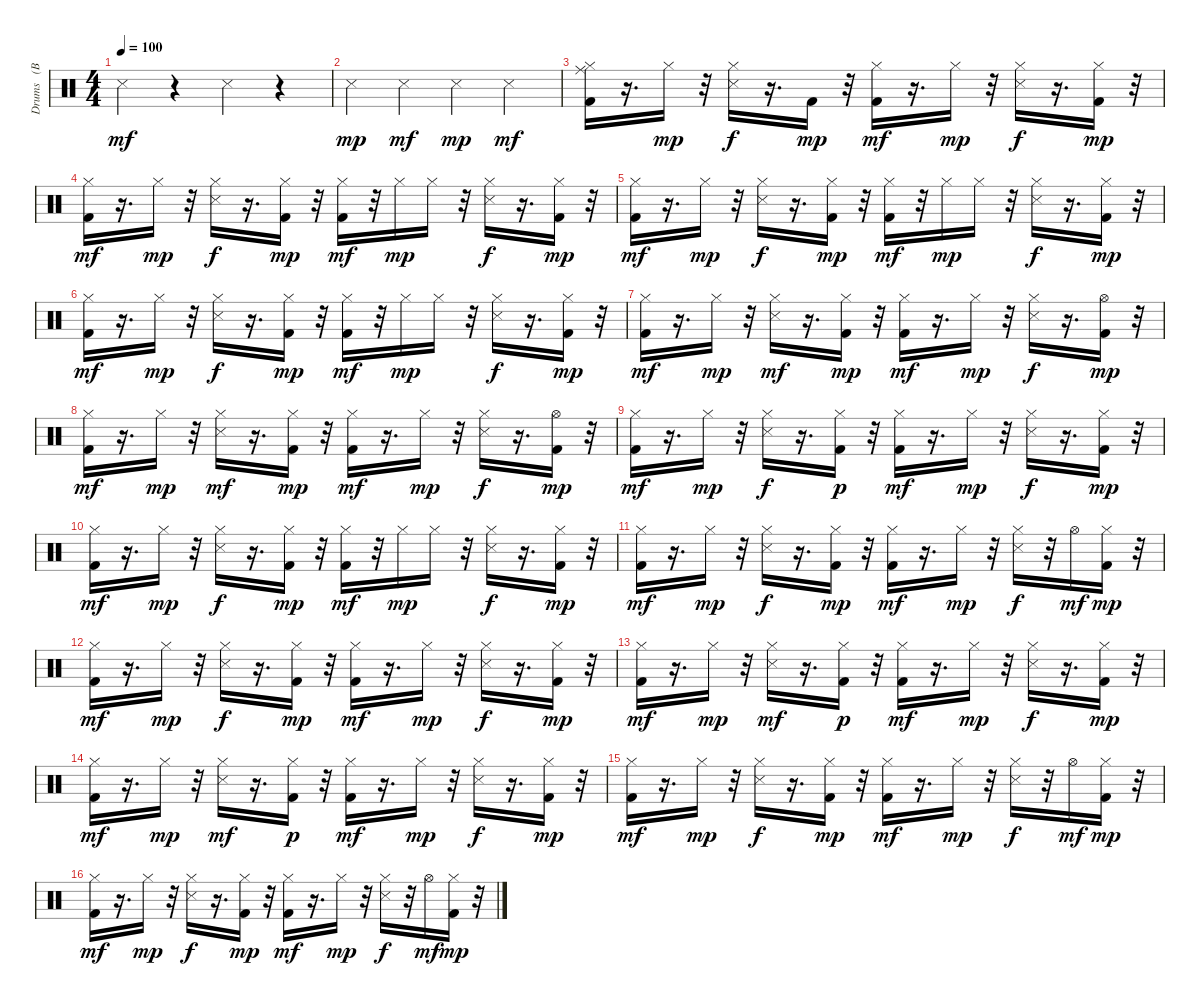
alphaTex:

\track ("Drums   (BB)" "Drums   (B") {instrument percussion}
\staff {score}
\articulation defaults
\ts (4 4)
\tempo 100
\clef neutral
\ks c "Snare (side stick) 3".4{dy mf}
r.4 "Snare (side stick) 3".4 r.4 |
"Snare (side stick) 3".4{dy mp} "Snare (side stick) 3".4{dy mf} "Snare (side stick) 3".4{dy mp} "Snare (side stick) 3".4{dy mf} |
("Kick (hit) 2" "Hi-Hat (closed)" "Ride (middle)").16 r.16{d} "Hi-Hat (closed)".16{dy mp} r.32 ("Hi-Hat (closed)" "Snare (side stick) 3").16{dy f} r.16{d} "Kick (hit) 2".16{dy mp} r.32 ("Kick (hit) 2" "Hi-Hat (closed)").16{dy mf} r.16{d} "Hi-Hat (closed)".16{dy mp} r.32 ("Hi-Hat (closed)" "Snare (side stick) 3").16{dy f} r.16{d} ("Kick (hit) 2" "Hi-Hat (closed)").16{dy mp} r.32 |
("Kick (hit) 2" "Hi-Hat (closed)").16{dy mf} r.16{d} "Hi-Hat (closed)".16{dy mp} r.32 ("Hi-Hat (closed)" "Snare (side stick) 3").16{dy f} r.16{d} ("Kick (hit) 2" "Hi-Hat (closed)").16{dy mp} r.32 ("Kick (hit) 2" "Hi-Hat (closed)").16{dy mf} r.32 "Hi-Hat (closed)".16{dy mp} "Hi-Hat (closed)".16 r.32 ("Hi-Hat (closed)" "Snare (side stick) 3").16{dy f} r.16{d} ("Kick (hit) 2" "Hi-Hat (closed)").16{dy mp} r.32 |
("Kick (hit) 2" "Hi-Hat (closed)").16{dy mf} r.16{d} "Hi-Hat (closed)".16{dy mp} r.32 ("Hi-Hat (closed)" "Snare (side stick) 3").16{dy f} r.16{d} ("Kick (hit) 2" "Hi-Hat (closed)").16{dy mp} r.32 ("Kick (hit) 2" "Hi-Hat (closed)").16{dy mf} r.32 "Hi-Hat (closed)".16{dy mp} "Hi-Hat (closed)".16 r.32 ("Hi-Hat (closed)" "Snare (side stick) 3").16{dy f} r.16{d} ("Kick (hit) 2" "Hi-Hat (closed)").16{dy mp} r.32 |
("Kick (hit) 2" "Hi-Hat (closed)").16{dy mf} r.16{d} "Hi-Hat (closed)".16{dy mp} r.32 ("Hi-Hat (closed)" "Snare (side stick) 3").16{dy f} r.16{d} ("Kick (hit) 2" "Hi-Hat (closed)").16{dy mp} r.32 ("Kick (hit) 2" "Hi-Hat (closed)").16{dy mf} r.32 "Hi-Hat (closed)".16{dy mp} "Hi-Hat (closed)".16 r.32 ("Hi-Hat (closed)" "Snare (side stick) 3").16{dy f} r.16{d} ("Kick (hit) 2" "Hi-Hat (closed)").16{dy mp} r.32 |
("Kick (hit) 2" "Hi-Hat (closed)").16{dy mf} r.16{d} "Hi-Hat (closed)".16{dy mp} r.32 ("Hi-Hat (closed)" "Snare (side stick) 3").16{dy mf} r.16{d} ("Kick (hit) 2" "Hi-Hat (closed)").16{dy mp} r.32 ("Kick (hit) 2" "Hi-Hat (closed)").16{dy mf} r.16{d} "Hi-Hat (closed)".16{dy mp} r.32 ("Hi-Hat (closed)" "Snare (side stick) 3").16{dy f} r.16{d} ("Kick (hit) 2" "Hi-Hat (open)").16{dy mp} r.32 |
("Kick (hit) 2" "Hi-Hat (closed)").16{dy mf} r.16{d} "Hi-Hat (closed)".16{dy mp} r.32 ("Hi-Hat (closed)" "Snare (side stick) 3").16{dy mf} r.16{d} ("Kick (hit) 2" "Hi-Hat (closed)").16{dy mp} r.32 ("Kick (hit) 2" "Hi-Hat (closed)").16{dy mf} r.16{d} "Hi-Hat (closed)".16{dy mp} r.32 ("Hi-Hat (closed)" "Snare (side stick) 3").16{dy f} r.16{d} ("Kick (hit) 2" "Hi-Hat (open)").16{dy mp} r.32 |
("Kick (hit) 2" "Hi-Hat (closed)").16{dy mf} r.16{d} "Hi-Hat (closed)".16{dy mp} r.32 ("Hi-Hat (closed)" "Snare (side stick) 3").16{dy f} r.16{d} ("Kick (hit) 2" "Hi-Hat (closed)").16{dy p} r.32 ("Kick (hit) 2" "Hi-Hat (closed)").16{dy mf} r.16{d} "Hi-Hat (closed)".16{dy mp} r.32 ("Hi-Hat (closed)" "Snare (side stick) 3").16{dy f} r.16{d} ("Kick (hit) 2" "Hi-Hat (closed)").16{dy mp} r.32 |
("Kick (hit) 2" "Hi-Hat (closed)").16{dy mf} r.16{d} "Hi-Hat (closed)".16{dy mp} r.32 ("Hi-Hat (closed)" "Snare (side stick) 3").16{dy f} r.16{d} ("Kick (hit) 2" "Hi-Hat (closed)").16{dy mp} r.32 ("Kick (hit) 2" "Hi-Hat (closed)").16{dy mf} r.32 "Hi-Hat (closed)".16{dy mp} "Hi-Hat (closed)".16 r.32 ("Hi-Hat (closed)" "Snare (side stick) 3").16{dy f} r.16{d} ("Kick (hit) 2" "Hi-Hat (closed)").16{dy mp} r.32 |
("Kick (hit) 2" "Hi-Hat (closed)").16{dy mf} r.16{d} "Hi-Hat (closed)".16{dy mp} r.32 ("Hi-Hat (closed)" "Snare (side stick) 3").16{dy f} r.16{d} ("Kick (hit) 2" "Hi-Hat (closed)").16{dy mp} r.32 ("Kick (hit) 2" "Hi-Hat (closed)").16{dy mf} r.16{d} "Hi-Hat (closed)".16{dy mp} r.32 ("Hi-Hat (closed)" "Snare (side stick) 3").16{dy f} r.32 "Hi-Hat (open)".16{dy mf} ("Kick (hit) 2" "Hi-Hat (closed)").16{dy mp} r.32 |
("Kick (hit) 2" "Hi-Hat (closed)").16{dy mf} r.16{d} "Hi-Hat (closed)".16{dy mp} r.32 ("Hi-Hat (closed)" "Snare (side stick) 3").16{dy f} r.16{d} ("Kick (hit) 2" "Hi-Hat (closed)").16{dy mp} r.32 ("Kick (hit) 2" "Hi-Hat (closed)").16{dy mf} r.16{d} "Hi-Hat (closed)".16{dy mp} r.32 ("Hi-Hat (closed)" "Snare (side stick) 3").16{dy f} r.16{d} ("Kick (hit) 2" "Hi-Hat (closed)").16{dy mp} r.32 |
("Kick (hit) 2" "Hi-Hat (closed)").16{dy mf} r.16{d} "Hi-Hat (closed)".16{dy mp} r.32 ("Hi-Hat (closed)" "Snare (side stick) 3").16{dy mf} r.16{d} ("Kick (hit) 2" "Hi-Hat (closed)").16{dy p} r.32 ("Kick (hit) 2" "Hi-Hat (closed)").16{dy mf} r.16{d} "Hi-Hat (closed)".16{dy mp} r.32 ("Hi-Hat (closed)" "Snare (side stick) 3").16{dy f} r.16{d} ("Kick (hit) 2" "Hi-Hat (closed)").16{dy mp} r.32 |
("Kick (hit) 2" "Hi-Hat (closed)").16{dy mf} r.16{d} "Hi-Hat (closed)".16{dy mp} r.32 ("Hi-Hat (closed)" "Snare (side stick) 3").16{dy mf} r.16{d} ("Kick (hit) 2" "Hi-Hat (closed)").16{dy p} r.32 ("Kick (hit) 2" "Hi-Hat (closed)").16{dy mf} r.16{d} "Hi-Hat (closed)".16{dy mp} r.32 ("Hi-Hat (closed)" "Snare (side stick) 3").16{dy f} r.16{d} ("Kick (hit) 2" "Hi-Hat (closed)").16{dy mp} r.32 |
("Kick (hit) 2" "Hi-Hat (closed)").16{dy mf} r.16{d} "Hi-Hat (closed)".16{dy mp} r.32 ("Hi-Hat (closed)" "Snare (side stick) 3").16{dy f} r.16{d} ("Kick (hit) 2" "Hi-Hat (closed)").16{dy mp} r.32 ("Kick (hit) 2" "Hi-Hat (closed)").16{dy mf} r.16{d} "Hi-Hat (closed)".16{dy mp} r.32 ("Hi-Hat (closed)" "Snare (side stick) 3").16{dy f} r.32 "Hi-Hat (open)".16{dy mf} ("Kick (hit) 2" "Hi-Hat (closed)").16{dy mp} r.32 |
("Kick (hit) 2" "Hi-Hat (closed)").16{dy mf} r.16{d} "Hi-Hat (closed)".16{dy mp} r.32 ("Hi-Hat (closed)" "Snare (side stick) 3").16{dy f} r.16{d} ("Kick (hit) 2" "Hi-Hat (closed)").16{dy mp} r.32 ("Kick (hit) 2" "Hi-Hat (closed)").16{dy mf} r.16{d} "Hi-Hat (closed)".16{dy mp} r.32 ("Hi-Hat (closed)" "Snare (side stick) 3").16{dy f} r.32 "Hi-Hat (open)".16{dy mf} ("Kick (hit) 2" "Hi-Hat (closed)").16{dy mp} r.32
